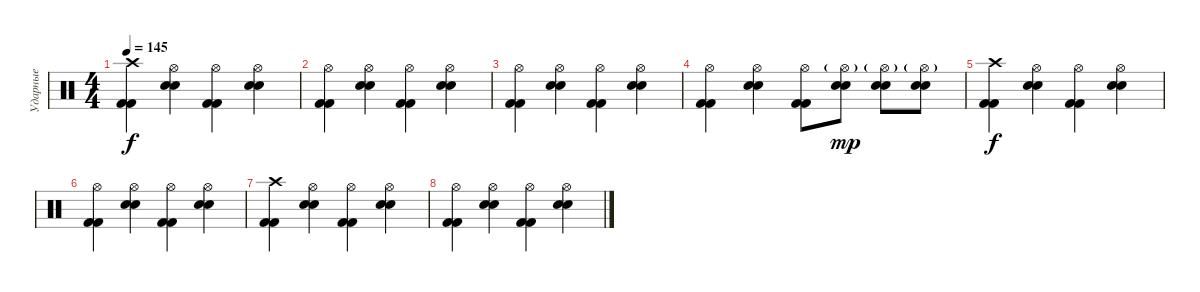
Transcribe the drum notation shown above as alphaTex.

\track ("Ударные" "Ударные") {instrument percussion}
\staff {score}
\articulation defaults
\ts (4 4)
\tempo 145
\clef neutral
\ks c
("Crash high (hit)" "Kick (hit) 2" "Kick (hit) 2").4{dy f} ("Hi-Hat (open)" "Electric Snare (hit)" "Electric Snare (hit)").4 ("Hi-Hat (open)" "Kick (hit) 2" "Kick (hit) 2").4 ("Hi-Hat (open)" "Electric Snare (hit)" "Electric Snare (hit)").4 |
("Hi-Hat (open)" "Kick (hit) 2" "Kick (hit) 2").4 ("Hi-Hat (open)" "Electric Snare (hit)" "Electric Snare (hit)").4 ("Hi-Hat (open)" "Kick (hit) 2" "Kick (hit) 2").4 ("Hi-Hat (open)" "Electric Snare (hit)" "Electric Snare (hit)").4 |
("Hi-Hat (open)" "Kick (hit) 2" "Kick (hit) 2").4 ("Hi-Hat (open)" "Electric Snare (hit)" "Electric Snare (hit)").4 ("Hi-Hat (open)" "Kick (hit) 2" "Kick (hit) 2").4 ("Hi-Hat (open)" "Electric Snare (hit)" "Electric Snare (hit)").4 |
("Hi-Hat (open)" "Kick (hit) 2" "Kick (hit) 2").4 ("Hi-Hat (open)" "Electric Snare (hit)" "Electric Snare (hit)").4 ("Hi-Hat (open)" "Kick (hit) 2" "Kick (hit) 2").8 ("Hi-Hat (open)"{g} "Electric Snare (hit)" "Electric Snare (hit)").8{dy mp} ("Hi-Hat (open)"{g} "Electric Snare (hit)" "Electric Snare (hit)").8 ("Hi-Hat (open)"{g} "Electric Snare (hit)" "Electric Snare (hit)").8 |
("Crash high (hit)" "Kick (hit) 2" "Kick (hit) 2").4{dy f} ("Hi-Hat (open)" "Electric Snare (hit)" "Electric Snare (hit)").4 ("Hi-Hat (open)" "Kick (hit) 2" "Kick (hit) 2").4 ("Hi-Hat (open)" "Electric Snare (hit)" "Electric Snare (hit)").4 |
("Hi-Hat (open)" "Kick (hit) 2" "Kick (hit) 2").4 ("Hi-Hat (open)" "Electric Snare (hit)" "Electric Snare (hit)").4 ("Hi-Hat (open)" "Kick (hit) 2" "Kick (hit) 2").4 ("Hi-Hat (open)" "Electric Snare (hit)" "Electric Snare (hit)").4 |
("Crash high (hit)" "Kick (hit) 2" "Kick (hit) 2").4 ("Hi-Hat (open)" "Electric Snare (hit)" "Electric Snare (hit)").4 ("Hi-Hat (open)" "Kick (hit) 2" "Kick (hit) 2").4 ("Hi-Hat (open)" "Electric Snare (hit)" "Electric Snare (hit)").4 |
("Hi-Hat (open)" "Kick (hit) 2" "Kick (hit) 2").4 ("Hi-Hat (open)" "Electric Snare (hit)" "Electric Snare (hit)").4 ("Hi-Hat (open)" "Kick (hit) 2" "Kick (hit) 2").4 ("Hi-Hat (open)" "Electric Snare (hit)" "Electric Snare (hit)").4
